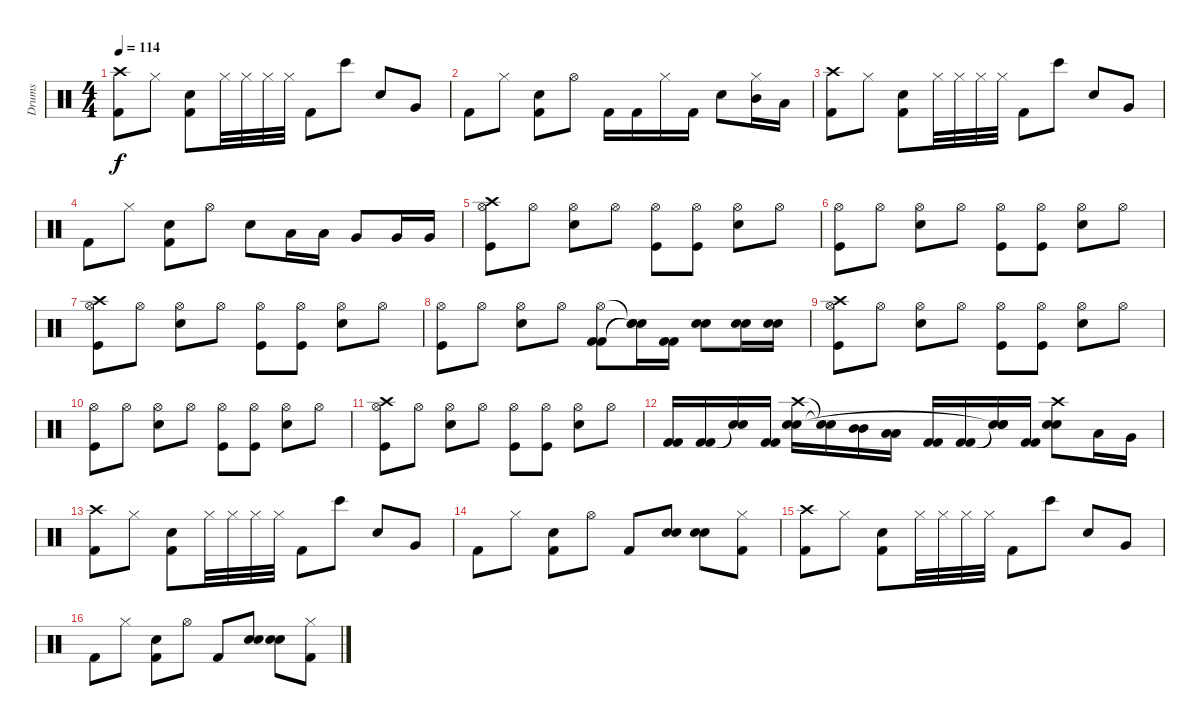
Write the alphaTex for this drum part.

\track ("Drums               " "Drums     ") {instrument percussion}
\staff {score}
\articulation defaults
\ts (4 4)
\tempo 114
\clef neutral
\ks c
("Crash high (hit)" "Kick (hit) 2").8{dy f} "Hi-Hat (closed)".8 ("Snare (hit) 2" "Kick (hit) 2").8 "Hi-Hat (closed)".32 "Hi-Hat (closed)".32 "Hi-Hat (closed)".32 "Hi-Hat (closed)".32 "Kick (hit) 2".8 "Bongo High (hit)".8 "Snare (hit) 2".8 "Very Low Tom (hit)".8 |
"Kick (hit) 2".8 "Hi-Hat (closed)".8 ("Snare (hit) 2" "Kick (hit) 2").8 "Hi-Hat (open)".8 "Kick (hit) 2".16 "Kick (hit) 2".16 "Hi-Hat (closed)".16 "Kick (hit) 2".16 "Snare (hit) 2".8 ("Hi-Hat (closed)" "Mid Tom (hit)").16 "Low Tom (hit)".16 |
("Crash high (hit)" "Kick (hit) 2").8 "Hi-Hat (closed)".8 ("Snare (hit) 2" "Kick (hit) 2").8 "Hi-Hat (closed)".32 "Hi-Hat (closed)".32 "Hi-Hat (closed)".32 "Hi-Hat (closed)".32 "Kick (hit) 2".8 "Bongo High (hit)".8 "Snare (hit) 2".8 "Very Low Tom (hit)".8 |
"Kick (hit) 2".8 "Hi-Hat (closed)".8 ("Snare (hit) 2" "Kick (hit) 2").8 "Hi-Hat (open)".8 "Snare (hit) 2".8 "Low Tom (hit)".16 "Low Tom (hit)".16 "Very Low Tom (hit)".8 "Very Low Tom (hit)".16 "Very Low Tom (hit)".16 |
("Kick (hit)" "Hi-Hat (open)" "Crash high (hit)").8 "Hi-Hat (open)".8 ("Snare (hit) 2" "Hi-Hat (open)").8 "Hi-Hat (open)".8 ("Kick (hit)" "Hi-Hat (open)").8 ("Kick (hit)" "Hi-Hat (open)").8 ("Snare (hit) 2" "Hi-Hat (open)").8 "Hi-Hat (open)".8 |
("Kick (hit)" "Hi-Hat (open)").8 "Hi-Hat (open)".8 ("Snare (hit) 2" "Hi-Hat (open)").8 "Hi-Hat (open)".8 ("Kick (hit)" "Hi-Hat (open)").8 ("Kick (hit)" "Hi-Hat (open)").8 ("Snare (hit) 2" "Hi-Hat (open)").8 "Hi-Hat (open)".8 |
("Kick (hit)" "Hi-Hat (open)" "Crash high (hit)").8 "Hi-Hat (open)".8 ("Snare (hit) 2" "Hi-Hat (open)").8 "Hi-Hat (open)".8 ("Kick (hit)" "Hi-Hat (open)").8 ("Kick (hit)" "Hi-Hat (open)").8 ("Snare (hit) 2" "Hi-Hat (open)").8 "Hi-Hat (open)".8 |
("Kick (hit)" "Hi-Hat (open)").8 "Hi-Hat (open)".8 ("Snare (hit) 2" "Hi-Hat (open)").8 "Hi-Hat (open)".8 ("Kick (hit) 2" "Kick (hit) 2" "Hi-Hat (open)").8 ("Snare (hit)"{t} "Snare (hit)"{t} "Snare (hit)"{t}).16 ("Kick (hit) 2" "Kick (hit) 2").16 ("Snare (hit) 2" "Snare (hit) 2").8 ("Snare (hit) 2" "Snare (hit) 2").16 ("Snare (hit) 2" "Snare (hit) 2").16 |
("Kick (hit)" "Hi-Hat (open)" "Crash high (hit)").8 "Hi-Hat (open)".8 ("Snare (hit) 2" "Hi-Hat (open)").8 "Hi-Hat (open)".8 ("Kick (hit)" "Hi-Hat (open)").8 ("Kick (hit)" "Hi-Hat (open)").8 ("Snare (hit) 2" "Hi-Hat (open)").8 "Hi-Hat (open)".8 |
("Kick (hit)" "Hi-Hat (open)").8 "Hi-Hat (open)".8 ("Snare (hit) 2" "Hi-Hat (open)").8 "Hi-Hat (open)".8 ("Kick (hit)" "Hi-Hat (open)").8 ("Kick (hit)" "Hi-Hat (open)").8 ("Snare (hit) 2" "Hi-Hat (open)").8 "Hi-Hat (open)".8 |
("Kick (hit)" "Hi-Hat (open)" "Crash high (hit)").8 "Hi-Hat (open)".8 ("Snare (hit) 2" "Hi-Hat (open)").8 "Hi-Hat (open)".8 ("Kick (hit)" "Hi-Hat (open)").8 ("Kick (hit)" "Hi-Hat (open)").8 ("Snare (hit) 2" "Hi-Hat (open)").8 "Hi-Hat (open)".8 |
("Kick (hit) 2" "Kick (hit) 2").16 ("Kick (hit) 2" "Kick (hit) 2").16 ("Snare (hit)"{t} "Snare (hit)"{t}).16 ("Kick (hit) 2" "Kick (hit) 2").16 ("Crash high (hit)" "Snare (hit) 2" "Snare (hit) 2").16 ("Snare (hit)"{t} "Snare (hit)"{t}).16 ("Mid Tom (hit)" "Mid Tom (hit)").16 ("Low Tom (hit)" "Low Tom (hit)").16 ("Kick (hit) 2" "Kick (hit) 2").16 ("Kick (hit) 2" "Kick (hit) 2").16 ("Snare (hit)"{t} "Snare (hit)"{t} "Snare (hit)"{t}).16 ("Kick (hit) 2" "Kick (hit) 2").16 ("Crash high (hit)" "Snare (hit) 2" "Snare (hit) 2").8 "Low Tom (hit)".16 "Very Low Tom (hit)".16 |
("Crash high (hit)" "Kick (hit) 2").8 "Hi-Hat (closed)".8 ("Snare (hit) 2" "Kick (hit) 2").8 "Hi-Hat (closed)".32 "Hi-Hat (closed)".32 "Hi-Hat (closed)".32 "Hi-Hat (closed)".32 "Kick (hit) 2".8 "Bongo High (hit)".8 "Snare (hit) 2".8 "Very Low Tom (hit)".8 |
"Kick (hit) 2".8 "Hi-Hat (closed)".8 ("Snare (hit) 2" "Kick (hit) 2").8 "Hi-Hat (open)".8 "Kick (hit) 2".8 ("Snare (hit) 2" "Snare (hit) 2").8 ("Snare (hit) 2" "Snare (hit) 2").8 ("Hi-Hat (closed)" "Kick (hit) 2").8 |
("Crash high (hit)" "Kick (hit) 2").8 "Hi-Hat (closed)".8 ("Snare (hit) 2" "Kick (hit) 2").8 "Hi-Hat (closed)".32 "Hi-Hat (closed)".32 "Hi-Hat (closed)".32 "Hi-Hat (closed)".32 "Kick (hit) 2".8 "Bongo High (hit)".8 "Snare (hit) 2".8 "Very Low Tom (hit)".8 |
"Kick (hit) 2".8 "Hi-Hat (closed)".8 ("Snare (hit) 2" "Kick (hit) 2").8 "Hi-Hat (open)".8 "Kick (hit) 2".8 ("Snare (hit) 2" "Snare (hit) 2").8 ("Snare (hit) 2" "Snare (hit) 2").8 ("Hi-Hat (closed)" "Kick (hit) 2").8
